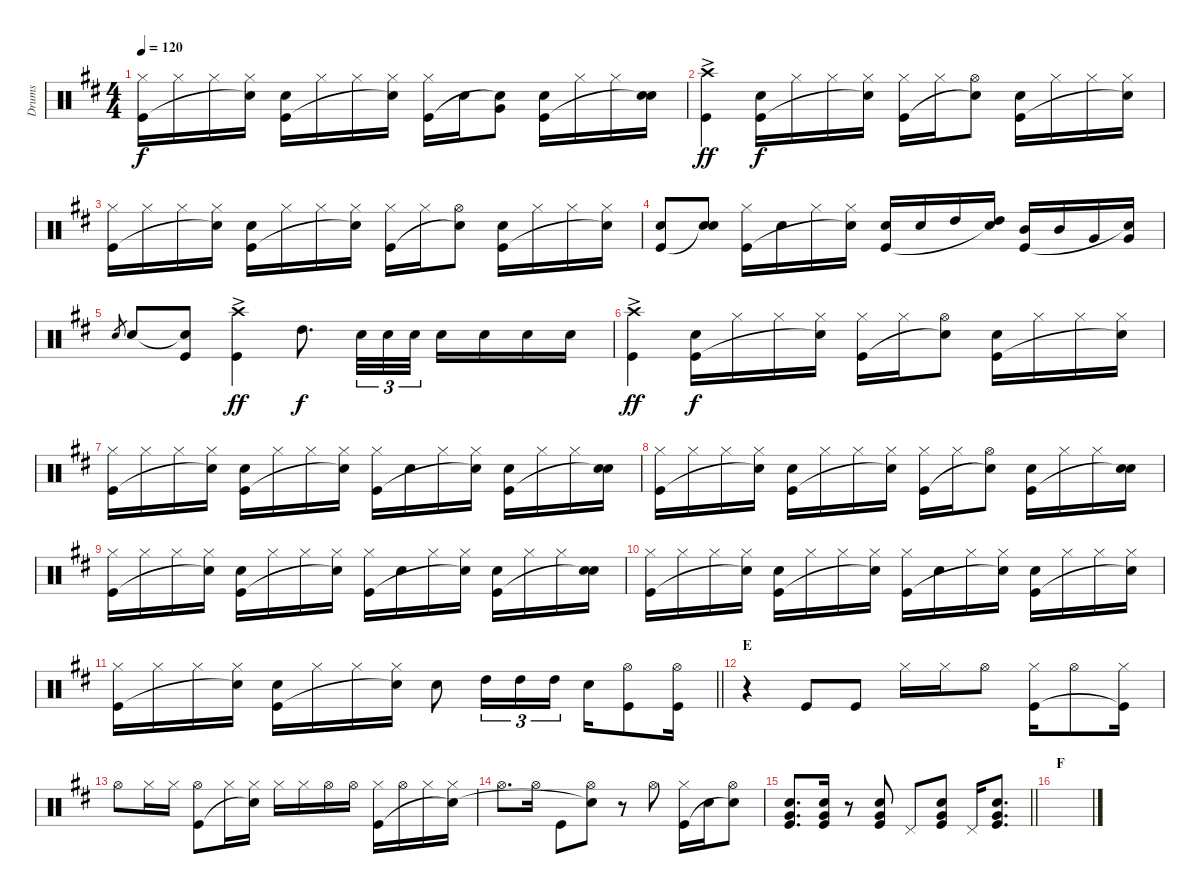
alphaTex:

\track ("Drums" "Drums") {instrument percussion}
\staff {score}
\articulation defaults
\ts (4 4)
\tempo 120
\clef neutral
\ks d
("Hi-Hat (closed)" "Kick (hit)").16{dy f} "Hi-Hat (closed)".16 "Hi-Hat (closed)".16 ("Hi-Hat (closed)" "Snare (hit)"{t}).16 ("Snare (hit) 2" "Kick (hit)").16 "Hi-Hat (closed)".16 "Hi-Hat (closed)".16 ("Hi-Hat (closed)" "Snare (hit)"{t}).16 ("Hi-Hat (closed)" "Kick (hit)").16 "Snare (hit) 2".16 ("Very Low Tom (hit)" "Snare (hit)"{t}).8 ("Snare (hit) 2" "Kick (hit)").16 "Hi-Hat (closed)".16 "Hi-Hat (closed)".16 ("Snare (hit) 2" "Snare (hit)"{t}).16 |
("Crash high (hit)"{ac} "Kick (hit)").4{dy ff} ("Snare (hit) 2" "Kick (hit)").16{dy f} "Hi-Hat (closed)".16 "Hi-Hat (closed)".16 ("Hi-Hat (closed)" "Snare (hit)"{t}).16 ("Hi-Hat (closed)" "Kick (hit)").16 "Hi-Hat (closed)".16 ("Hi-Hat (open)" "Snare (hit)"{t}).8 ("Snare (hit) 2" "Kick (hit)").16 "Hi-Hat (closed)".16 "Hi-Hat (closed)".16 ("Hi-Hat (closed)" "Snare (hit)"{t}).16 |
("Hi-Hat (closed)" "Kick (hit)").16 "Hi-Hat (closed)".16 "Hi-Hat (closed)".16 ("Hi-Hat (closed)" "Snare (hit)"{t}).16 ("Snare (hit) 2" "Kick (hit)").16 "Hi-Hat (closed)".16 "Hi-Hat (closed)".16 ("Hi-Hat (closed)" "Snare (hit)"{t}).16 ("Hi-Hat (closed)" "Kick (hit)").16 "Hi-Hat (closed)".16 ("Hi-Hat (open)" "Snare (hit)"{t}).8 ("Snare (hit) 2" "Kick (hit)").16 "Hi-Hat (closed)".16 "Hi-Hat (closed)".16 ("Hi-Hat (closed)" "Snare (hit)"{t}).16 |
("Snare (hit) 2" "Kick (hit)").8 ("Snare (hit) 2" "Snare (hit)"{t}).8 ("Hi-Hat (closed)" "Kick (hit)").16 "Snare (hit) 2".16 "Hi-Hat (closed)".16 ("Hi-Hat (closed)" "Snare (hit)"{t}).16 ("Snare (hit) 2" "Kick (hit)").16 "Snare (hit) 2".16 "High Tom (hit)".16 ("High Tom (hit)" "Snare (hit)"{t}).16 ("Mid Tom (hit)" "Kick (hit)").16 "Mid Tom (hit)".16 "Very Low Tom (hit)".16 ("Very Low Tom (hit)" "Snare (hit)"{t}).16 |
"Snare (hit) 2".8{gr} "Snare (hit) 2".8 ("Snare (hit)"{t} "Kick (hit)").8 ("Crash high (hit)"{ac} "Kick (hit)").4{dy ff} "High Tom (hit)".8{d dy f} "Snare (hit) 2".32{tu (3 2)} "Snare (hit) 2".32{tu (3 2)} "Snare (hit) 2".32{tu (3 2)} "Snare (hit) 2".16 "Snare (hit) 2".16 "Snare (hit) 2".16 "Snare (hit) 2".16 |
("Crash high (hit)"{ac} "Kick (hit)").4{dy ff} ("Snare (hit) 2" "Kick (hit)").16{dy f} "Hi-Hat (closed)".16 "Hi-Hat (closed)".16 ("Hi-Hat (closed)" "Snare (hit)"{t}).16 ("Hi-Hat (closed)" "Kick (hit)").16 "Hi-Hat (closed)".16 ("Hi-Hat (open)" "Snare (hit)"{t}).8 ("Snare (hit) 2" "Kick (hit)").16 "Hi-Hat (closed)".16 "Hi-Hat (closed)".16 ("Hi-Hat (closed)" "Snare (hit)"{t}).16 |
("Hi-Hat (closed)" "Kick (hit)").16 "Hi-Hat (closed)".16 "Hi-Hat (closed)".16 ("Hi-Hat (closed)" "Snare (hit)"{t}).16 ("Snare (hit) 2" "Kick (hit)").16 "Hi-Hat (closed)".16 "Hi-Hat (closed)".16 ("Hi-Hat (closed)" "Snare (hit)"{t}).16 ("Hi-Hat (closed)" "Kick (hit)").16 "Snare (hit) 2".16 "Hi-Hat (closed)".16 ("Hi-Hat (closed)" "Snare (hit)"{t}).16 ("Snare (hit) 2" "Kick (hit)").16 "Hi-Hat (closed)".16 "Hi-Hat (closed)".16 ("Snare (hit) 2" "Snare (hit)"{t}).16 |
("Hi-Hat (closed)" "Kick (hit)").16 "Hi-Hat (closed)".16 "Hi-Hat (closed)".16 ("Hi-Hat (closed)" "Snare (hit)"{t}).16 ("Snare (hit) 2" "Kick (hit)").16 "Hi-Hat (closed)".16 "Hi-Hat (closed)".16 ("Hi-Hat (closed)" "Snare (hit)"{t}).16 ("Hi-Hat (closed)" "Kick (hit)").16 "Hi-Hat (closed)".16 ("Hi-Hat (open)" "Snare (hit)"{t}).8 ("Snare (hit) 2" "Kick (hit)").16 "Hi-Hat (closed)".16 "Hi-Hat (closed)".16 ("Snare (hit) 2" "Snare (hit)"{t}).16 |
("Hi-Hat (closed)" "Kick (hit)").16 "Hi-Hat (closed)".16 "Hi-Hat (closed)".16 ("Hi-Hat (closed)" "Snare (hit)"{t}).16 ("Snare (hit) 2" "Kick (hit)").16 "Hi-Hat (closed)".16 "Hi-Hat (closed)".16 ("Hi-Hat (closed)" "Snare (hit)"{t}).16 ("Hi-Hat (closed)" "Kick (hit)").16 "Snare (hit) 2".16 "Hi-Hat (closed)".16 ("Hi-Hat (closed)" "Snare (hit)"{t}).16 ("Snare (hit) 2" "Kick (hit)").16 "Hi-Hat (closed)".16 "Hi-Hat (closed)".16 ("Snare (hit) 2" "Snare (hit)"{t}).16 |
("Hi-Hat (closed)" "Kick (hit)").16 "Hi-Hat (closed)".16 "Hi-Hat (closed)".16 ("Hi-Hat (closed)" "Snare (hit)"{t}).16 ("Snare (hit) 2" "Kick (hit)").16 "Hi-Hat (closed)".16 "Hi-Hat (closed)".16 ("Hi-Hat (closed)" "Snare (hit)"{t}).16 ("Hi-Hat (closed)" "Kick (hit)").16 "Snare (hit) 2".16 "Hi-Hat (closed)".16 ("Hi-Hat (closed)" "Snare (hit)"{t}).16 ("Snare (hit) 2" "Kick (hit)").16 "Hi-Hat (closed)".16 "Hi-Hat (closed)".16 ("Hi-Hat (closed)" "Snare (hit)"{t}).16 |
\barLineRight lightlight
("Hi-Hat (closed)" "Kick (hit)").16 "Hi-Hat (closed)".16 "Hi-Hat (closed)".16 ("Hi-Hat (closed)" "Snare (hit)"{t}).16 ("Snare (hit) 2" "Kick (hit)").16 "Hi-Hat (closed)".16 "Hi-Hat (closed)".16 ("Hi-Hat (closed)" "Snare (hit)"{t}).16 "Snare (hit) 2".8 "High Tom (hit)".16{tu (3 2)} "High Tom (hit)".16{tu (3 2)} "High Tom (hit)".16{tu (3 2)} "Snare (hit) 2".16 ("Hi-Hat (open)" "Kick (hit)").8 ("Hi-Hat (open)" "Kick (hit)").16 |
\section ("" "E")
r.4 "Kick (hit)".8 "Kick (hit)".8 "Hi-Hat (closed)".16 "Hi-Hat (closed)".16 "Hi-Hat (open)".8 ("Hi-Hat (closed)" "Kick (hit)").16 "Hi-Hat (open)".8 ("Hi-Hat (closed)" "Kick (hit)"{t}).16 |
"Hi-Hat (open)".8 "Hi-Hat (closed)".16 "Hi-Hat (closed)".16 ("Hi-Hat (open)" "Kick (hit)").8 "Hi-Hat (closed)".16 ("Hi-Hat (closed)" "Snare (hit)"{t}).16 "Hi-Hat (closed)".16 "Hi-Hat (closed)".16 "Hi-Hat (open)".16 "Hi-Hat (open)".16 ("Hi-Hat (closed)" "Kick (hit)").16 "Hi-Hat (open)".16 "Hi-Hat (closed)".16 ("Hi-Hat (closed)" "Snare (hit)"{t}).16 |
"Hi-Hat (open)".8{d} "Hi-Hat (open)".16 "Kick (hit)".8 ("Hi-Hat (open)" "Snare (hit)"{t}).8 r.8 "Hi-Hat (open)".8 ("Hi-Hat (closed)" "Kick (hit)").16 "Snare (hit) 2".16 ("Hi-Hat (open)" "Snare (hit)"{t}).8 |
\barLineRight lightlight
("Snare (hit) 2" "Very Low Tom (hit)" "Kick (hit)").8{d} ("Snare (hit) 2" "Very Low Tom (hit)" "Kick (hit)").16 r.8 ("Snare (hit) 2" "Very Low Tom (hit)" "Kick (hit)").8 "Pedal Hi-Hat (hit)".8 ("Snare (hit) 2" "Very Low Tom (hit)" "Kick (hit)").8 "Pedal Hi-Hat (hit)".16 ("Snare (hit) 2" "Very Low Tom (hit)" "Kick (hit)").8{d} |
\section ("" "F")
